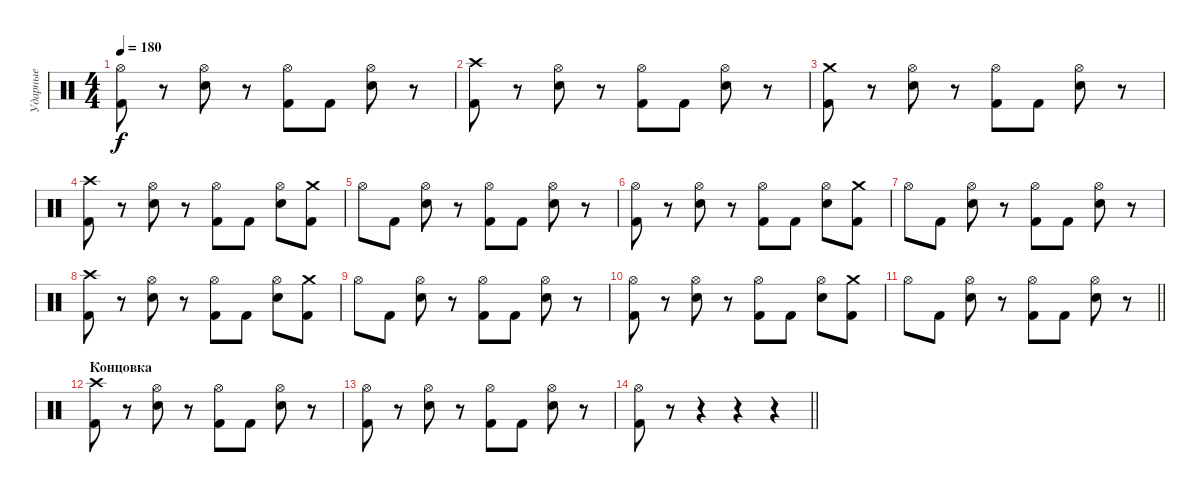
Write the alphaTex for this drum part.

\track ("Ударные" "Ударные") {instrument percussion}
\staff {score}
\articulation defaults
\ts (4 4)
\tempo 180
\clef neutral
\ks c
("Hi-Hat (open)" "Kick (hit) 2").8{dy f} r.8 ("Hi-Hat (open)" "Electric Snare (hit)").8 r.8 ("Hi-Hat (open)" "Kick (hit) 2").8 "Kick (hit) 2".8 ("Hi-Hat (open)" "Electric Snare (hit)").8 r.8 |
("Crash high (hit)" "Kick (hit) 2").8 r.8 ("Hi-Hat (open)" "Electric Snare (hit)").8 r.8 ("Hi-Hat (open)" "Kick (hit) 2").8 "Kick (hit) 2".8 ("Hi-Hat (open)" "Electric Snare (hit)").8 r.8 |
("Crash medium (hit)" "Kick (hit) 2").8 r.8 ("Hi-Hat (open)" "Electric Snare (hit)").8 r.8 ("Hi-Hat (open)" "Kick (hit) 2").8 "Kick (hit) 2".8 ("Hi-Hat (open)" "Electric Snare (hit)").8 r.8 |
("Crash high (hit)" "Kick (hit) 2").8 r.8 ("Hi-Hat (open)" "Electric Snare (hit)").8 r.8 ("Hi-Hat (open)" "Kick (hit) 2").8 "Kick (hit) 2".8 ("Hi-Hat (open)" "Electric Snare (hit)").8 ("Crash medium (hit)" "Kick (hit) 2").8 |
"Hi-Hat (open)".8 "Kick (hit) 2".8 ("Hi-Hat (open)" "Electric Snare (hit)").8 r.8 ("Hi-Hat (open)" "Kick (hit) 2").8 "Kick (hit) 2".8 ("Hi-Hat (open)" "Electric Snare (hit)").8 r.8 |
("Hi-Hat (open)" "Kick (hit) 2").8 r.8 ("Hi-Hat (open)" "Electric Snare (hit)").8 r.8 ("Hi-Hat (open)" "Kick (hit) 2").8 "Kick (hit) 2".8 ("Hi-Hat (open)" "Electric Snare (hit)").8 ("Crash medium (hit)" "Kick (hit) 2").8 |
"Hi-Hat (open)".8 "Kick (hit) 2".8 ("Hi-Hat (open)" "Electric Snare (hit)").8 r.8 ("Hi-Hat (open)" "Kick (hit) 2").8 "Kick (hit) 2".8 ("Hi-Hat (open)" "Electric Snare (hit)").8 r.8 |
("Crash high (hit)" "Kick (hit) 2").8 r.8 ("Hi-Hat (open)" "Electric Snare (hit)").8 r.8 ("Hi-Hat (open)" "Kick (hit) 2").8 "Kick (hit) 2".8 ("Hi-Hat (open)" "Electric Snare (hit)").8 ("Crash medium (hit)" "Kick (hit) 2").8 |
"Hi-Hat (open)".8 "Kick (hit) 2".8 ("Hi-Hat (open)" "Electric Snare (hit)").8 r.8 ("Hi-Hat (open)" "Kick (hit) 2").8 "Kick (hit) 2".8 ("Hi-Hat (open)" "Electric Snare (hit)").8 r.8 |
("Hi-Hat (open)" "Kick (hit) 2").8 r.8 ("Hi-Hat (open)" "Electric Snare (hit)").8 r.8 ("Hi-Hat (open)" "Kick (hit) 2").8 "Kick (hit) 2".8 ("Hi-Hat (open)" "Electric Snare (hit)").8 ("Crash medium (hit)" "Kick (hit) 2").8 |
\barLineRight lightlight "Hi-Hat (open)".8 "Kick (hit) 2".8
("Hi-Hat (open)" "Electric Snare (hit)").8 r.8 ("Hi-Hat (open)" "Kick (hit) 2").8 "Kick (hit) 2".8 ("Hi-Hat (open)" "Electric Snare (hit)").8 r.8 |
\section ("" "Концовка")
("Crash high (hit)" "Kick (hit) 2").8 r.8 ("Hi-Hat (open)" "Electric Snare (hit)").8 r.8 ("Hi-Hat (open)" "Kick (hit) 2").8 "Kick (hit) 2".8 ("Hi-Hat (open)" "Electric Snare (hit)").8 r.8 |
("Hi-Hat (open)" "Kick (hit) 2").8 r.8 ("Hi-Hat (open)" "Electric Snare (hit)").8 r.8 ("Hi-Hat (open)" "Kick (hit) 2").8 "Kick (hit) 2".8 ("Hi-Hat (open)" "Electric Snare (hit)").8 r.8 |
\barLineRight lightlight
("Hi-Hat (open)" "Kick (hit) 2").8 r.8 r.4 r.4 r.4
